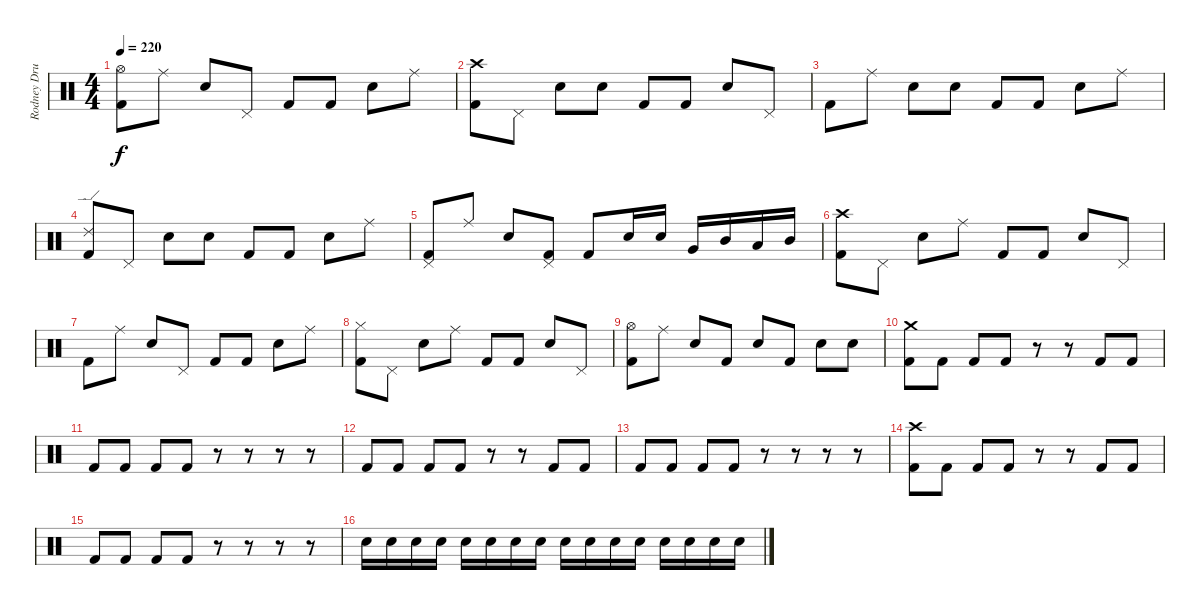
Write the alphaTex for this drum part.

\track ("Rodney Drums" "Rodney Dru") {instrument percussion}
\staff {score}
\articulation defaults
\ts (4 4)
\tempo 220
\clef neutral
\ks c
("Hi-Hat (open)" "Kick (hit) 2").8{dy f} "Ride (middle)".8 "Electric Snare (hit)".8 "Pedal Hi-Hat (hit)".8 "Kick (hit) 2".8 "Kick (hit) 2".8 "Electric Snare (hit)".8 "Ride (middle)".8 |
("Crash high (hit)" "Kick (hit) 2").8 "Pedal Hi-Hat (hit)".8 "Electric Snare (hit)".8 "Electric Snare (hit)".8 "Kick (hit) 2".8 "Kick (hit) 2".8 "Electric Snare (hit)".8 "Pedal Hi-Hat (hit)".8 |
"Kick (hit) 2".8 "Ride (middle)".8 "Electric Snare (hit)".8 "Electric Snare (hit)".8 "Kick (hit) 2".8 "Kick (hit) 2".8 "Electric Snare (hit)".8 "Ride (middle)".8 |
("Ride (edge) 2" "Kick (hit) 2").8 "Pedal Hi-Hat (hit)".8 "Electric Snare (hit)".8 "Electric Snare (hit)".8 "Kick (hit) 2".8 "Kick (hit) 2".8 "Electric Snare (hit)".8 "Ride (middle)".8 |
("Pedal Hi-Hat (hit)" "Kick (hit) 2").8 "Ride (middle)".8 "Electric Snare (hit)".8 ("Pedal Hi-Hat (hit)" "Kick (hit) 2").8 "Kick (hit) 2".8 "Electric Snare (hit)".16 "Electric Snare (hit)".16 "Very Low Tom (hit)".16 "Mid Tom (hit)".16 "Low Tom (hit)".16 "Mid Tom (hit)".16 |
("Crash high (hit)" "Kick (hit) 2").8 "Pedal Hi-Hat (hit)".8 "Electric Snare (hit)".8 "Ride (middle)".8 "Kick (hit) 2".8 "Kick (hit) 2".8 "Electric Snare (hit)".8 "Pedal Hi-Hat (hit)".8 |
"Kick (hit) 2".8 "Ride (middle)".8 "Electric Snare (hit)".8 "Pedal Hi-Hat (hit)".8 "Kick (hit) 2".8 "Kick (hit) 2".8 "Electric Snare (hit)".8 "Ride (middle)".8 |
("Hi-Hat (closed)" "Kick (hit) 2").8 "Pedal Hi-Hat (hit)".8 "Electric Snare (hit)".8 "Ride (middle)".8 "Kick (hit) 2".8 "Kick (hit) 2".8 "Electric Snare (hit)".8 "Pedal Hi-Hat (hit)".8 |
("Hi-Hat (open)" "Kick (hit) 2").8 "Ride (middle)".8 "Electric Snare (hit)".8 "Kick (hit) 2".8 "Electric Snare (hit)".8 "Kick (hit) 2".8 "Electric Snare (hit)".8 "Electric Snare (hit)".8 |
("Crash medium (hit)" "Kick (hit) 2").8 "Kick (hit) 2".8 "Kick (hit) 2".8 "Kick (hit) 2".8 r.8 r.8 "Kick (hit) 2".8 "Kick (hit) 2".8 |
"Kick (hit) 2".8 "Kick (hit) 2".8 "Kick (hit) 2".8 "Kick (hit) 2".8 r.8 r.8 r.8 r.8 |
"Kick (hit) 2".8 "Kick (hit) 2".8 "Kick (hit) 2".8 "Kick (hit) 2".8 r.8 r.8 "Kick (hit) 2".8 "Kick (hit) 2".8 |
"Kick (hit) 2".8 "Kick (hit) 2".8 "Kick (hit) 2".8 "Kick (hit) 2".8 r.8 r.8 r.8 r.8 |
("Crash high (hit)" "Kick (hit) 2").8 "Kick (hit) 2".8 "Kick (hit) 2".8 "Kick (hit) 2".8 r.8 r.8 "Kick (hit) 2".8 "Kick (hit) 2".8 |
"Kick (hit) 2".8 "Kick (hit) 2".8 "Kick (hit) 2".8 "Kick (hit) 2".8 r.8 r.8 r.8 r.8 |
"Electric Snare (hit)".16 "Electric Snare (hit)".16 "Electric Snare (hit)".16 "Electric Snare (hit)".16 "Electric Snare (hit)".16 "Electric Snare (hit)".16 "Electric Snare (hit)".16 "Electric Snare (hit)".16 "Electric Snare (hit)".16 "Electric Snare (hit)".16 "Electric Snare (hit)".16 "Electric Snare (hit)".16 "Electric Snare (hit)".16 "Electric Snare (hit)".16 "Electric Snare (hit)".16 "Electric Snare (hit)".16
